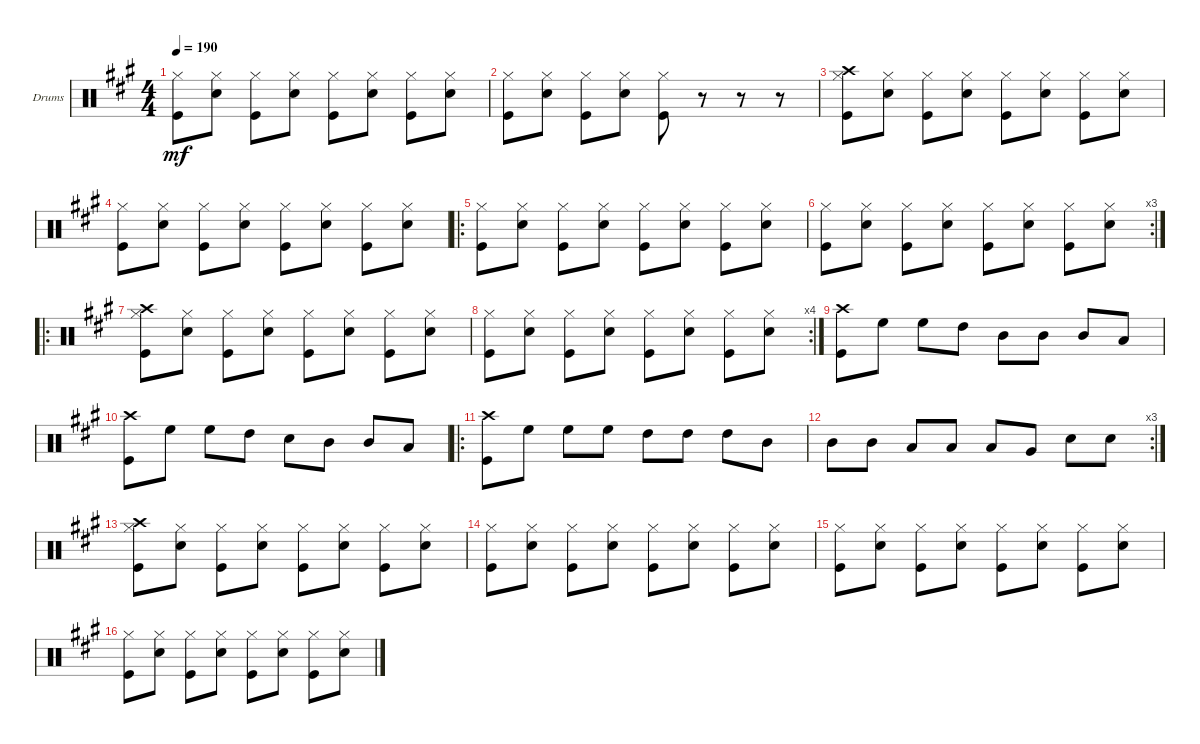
\defaultSystemsLayout 4
\bracketExtendMode groupsimilarinstruments
\firstSystemTrackNameOrientation horizontal
\otherSystemsTrackNameOrientation horizontal
\track ("Drumkit" "Drums") {instrument percussion}
\staff {score}
\articulation defaults
\ts (4 4)
\tempo 190
\clef neutral
\ks f#minor
("Kick (hit)" "Hi-Hat (closed)").8{dy mf} ("Snare (hit) 2" "Hi-Hat (closed)").8 ("Kick (hit)" "Hi-Hat (closed)").8 ("Snare (hit) 2" "Hi-Hat (closed)").8 ("Kick (hit)" "Hi-Hat (closed)").8 ("Snare (hit) 2" "Hi-Hat (closed)").8 ("Kick (hit)" "Hi-Hat (closed)").8 ("Snare (hit) 2" "Hi-Hat (closed)").8 |
("Kick (hit)" "Hi-Hat (closed)").8 ("Snare (hit) 2" "Hi-Hat (closed)").8 ("Kick (hit)" "Hi-Hat (closed)").8 ("Snare (hit) 2" "Hi-Hat (closed)").8 ("Kick (hit)" "Hi-Hat (closed)").8 r.8 r.8 r.8 |
("Kick (hit)" "Hi-Hat (closed)" "Crash high (hit)").8 ("Snare (hit) 2" "Hi-Hat (closed)").8 ("Kick (hit)" "Hi-Hat (closed)").8 ("Snare (hit) 2" "Hi-Hat (closed)").8 ("Kick (hit)" "Hi-Hat (closed)").8 ("Snare (hit) 2" "Hi-Hat (closed)").8 ("Kick (hit)" "Hi-Hat (closed)").8 ("Snare (hit) 2" "Hi-Hat (closed)").8 |
("Kick (hit)" "Hi-Hat (closed)").8 ("Snare (hit) 2" "Hi-Hat (closed)").8 ("Kick (hit)" "Hi-Hat (closed)").8 ("Snare (hit) 2" "Hi-Hat (closed)").8 ("Kick (hit)" "Hi-Hat (closed)").8 ("Snare (hit) 2" "Hi-Hat (closed)").8 ("Kick (hit)" "Hi-Hat (closed)").8 ("Snare (hit) 2" "Hi-Hat (closed)").8 |
\ro
("Kick (hit)" "Hi-Hat (closed)").8 ("Snare (hit) 2" "Hi-Hat (closed)").8 ("Kick (hit)" "Hi-Hat (closed)").8 ("Snare (hit) 2" "Hi-Hat (closed)").8 ("Kick (hit)" "Hi-Hat (closed)").8 ("Snare (hit) 2" "Hi-Hat (closed)").8 ("Kick (hit)" "Hi-Hat (closed)").8 ("Snare (hit) 2" "Hi-Hat (closed)").8 |
\rc 3
("Kick (hit)" "Hi-Hat (closed)").8 ("Snare (hit) 2" "Hi-Hat (closed)").8 ("Kick (hit)" "Hi-Hat (closed)").8 ("Snare (hit) 2" "Hi-Hat (closed)").8 ("Kick (hit)" "Hi-Hat (closed)").8 ("Snare (hit) 2" "Hi-Hat (closed)").8 ("Kick (hit)" "Hi-Hat (closed)").8 ("Snare (hit) 2" "Hi-Hat (closed)").8 |
\ro
("Kick (hit)" "Hi-Hat (closed)" "Crash high (hit)").8 ("Snare (hit) 2" "Hi-Hat (closed)").8 ("Kick (hit)" "Hi-Hat (closed)").8 ("Snare (hit) 2" "Hi-Hat (closed)").8 ("Kick (hit)" "Hi-Hat (closed)").8 ("Snare (hit) 2" "Hi-Hat (closed)").8 ("Kick (hit)" "Hi-Hat (closed)").8 ("Snare (hit) 2" "Hi-Hat (closed)").8 |
\rc 4
("Kick (hit)" "Hi-Hat (closed)").8 ("Snare (hit) 2" "Hi-Hat (closed)").8 ("Kick (hit)" "Hi-Hat (closed)").8 ("Snare (hit) 2" "Hi-Hat (closed)").8 ("Kick (hit)" "Hi-Hat (closed)").8 ("Snare (hit) 2" "Hi-Hat (closed)").8 ("Kick (hit)" "Hi-Hat (closed)").8 ("Snare (hit) 2" "Hi-Hat (closed)").8 |
("Kick (hit)" "Crash high (hit)").8 "High Floor Tom (hit)".8 "High Floor Tom (hit)".8 "High Tom (hit)".8 "Mid Tom (hit)".8 "Mid Tom (hit)".8 "Mid Tom (hit)".8 "Low Tom (hit)".8 |
("Kick (hit)" "Crash high (hit)").8 "High Floor Tom (hit)".8 "High Floor Tom (hit)".8 "High Tom (hit)".8 "Snare (hit) 2".8 "Mid Tom (hit)".8 "Mid Tom (hit)".8 "Low Tom (hit)".8 |
\ro
("Kick (hit)" "Crash high (hit)").8 "High Floor Tom (hit)".8 "High Floor Tom (hit)".8 "High Floor Tom (hit)".8 "High Tom (hit)".8 "High Tom (hit)".8 "High Tom (hit)".8 "Mid Tom (hit)".8 |
\rc 3 "Mid Tom (hit)".8 "Mid Tom (hit)".8 "Low Tom (hit)".8 "Low Tom (hit)".8 "Low Tom (hit)".8 "Very Low Tom (hit)".8 "Snare (hit) 2".8 "Snare (hit) 2".8
|
("Kick (hit)" "Hi-Hat (closed)" "Crash high (hit)").8 ("Snare (hit) 2" "Hi-Hat (closed)").8 ("Kick (hit)" "Hi-Hat (closed)").8 ("Snare (hit) 2" "Hi-Hat (closed)").8 ("Kick (hit)" "Hi-Hat (closed)").8 ("Snare (hit) 2" "Hi-Hat (closed)").8 ("Kick (hit)" "Hi-Hat (closed)").8 ("Snare (hit) 2" "Hi-Hat (closed)").8 |
("Kick (hit)" "Hi-Hat (closed)").8 ("Snare (hit) 2" "Hi-Hat (closed)").8 ("Kick (hit)" "Hi-Hat (closed)").8 ("Snare (hit) 2" "Hi-Hat (closed)").8 ("Kick (hit)" "Hi-Hat (closed)").8 ("Snare (hit) 2" "Hi-Hat (closed)").8 ("Kick (hit)" "Hi-Hat (closed)").8 ("Snare (hit) 2" "Hi-Hat (closed)").8 |
("Kick (hit)" "Hi-Hat (closed)").8 ("Snare (hit) 2" "Hi-Hat (closed)").8 ("Kick (hit)" "Hi-Hat (closed)").8 ("Snare (hit) 2" "Hi-Hat (closed)").8 ("Kick (hit)" "Hi-Hat (closed)").8 ("Snare (hit) 2" "Hi-Hat (closed)").8 ("Kick (hit)" "Hi-Hat (closed)").8 ("Snare (hit) 2" "Hi-Hat (closed)").8 |
("Kick (hit)" "Hi-Hat (closed)").8 ("Snare (hit) 2" "Hi-Hat (closed)").8 ("Kick (hit)" "Hi-Hat (closed)").8 ("Snare (hit) 2" "Hi-Hat (closed)").8 ("Kick (hit)" "Hi-Hat (closed)").8 ("Snare (hit) 2" "Hi-Hat (closed)").8 ("Kick (hit)" "Hi-Hat (closed)").8 ("Snare (hit) 2" "Hi-Hat (closed)").8
